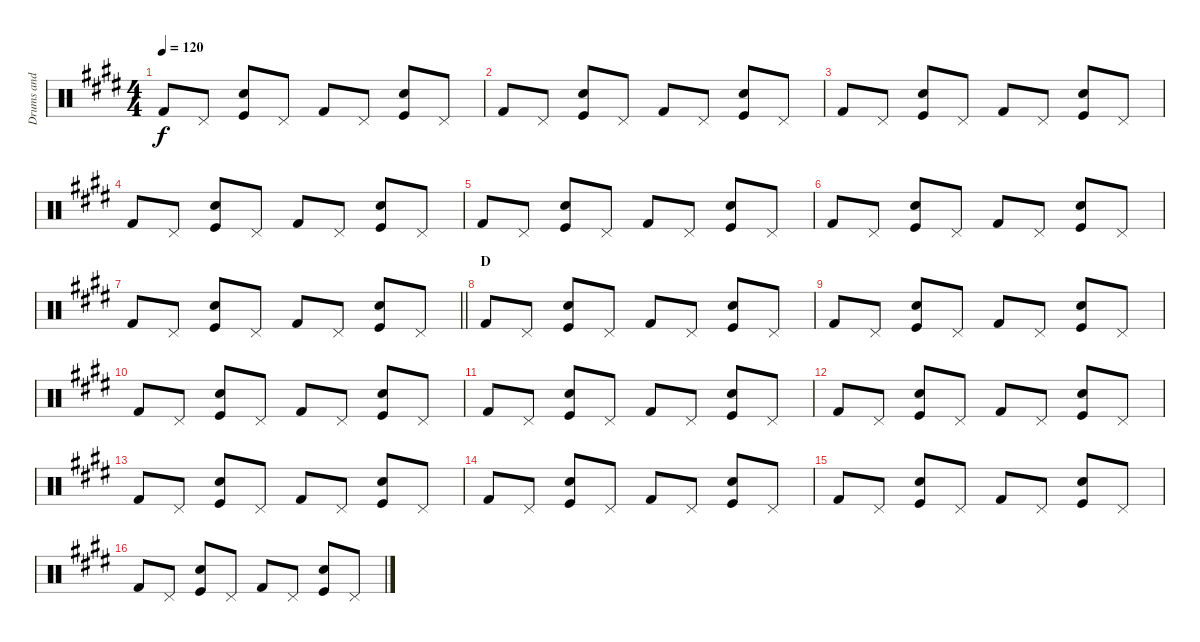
\track ("Drums and clapping" "Drums and ") {instrument percussion}
\staff {score}
\articulation defaults
\ts (4 4)
\tempo 120
\clef neutral
\ks e "Kick (hit) 2".8{dy f} "Pedal Hi-Hat (hit)".8
("Kick (hit)" "Hand Clap (hit)").8 "Pedal Hi-Hat (hit)".8 "Kick (hit) 2".8 "Pedal Hi-Hat (hit)".8 ("Kick (hit)" "Hand Clap (hit)").8 "Pedal Hi-Hat (hit)".8 |
"Kick (hit) 2".8 "Pedal Hi-Hat (hit)".8 ("Kick (hit)" "Hand Clap (hit)").8 "Pedal Hi-Hat (hit)".8 "Kick (hit) 2".8 "Pedal Hi-Hat (hit)".8 ("Kick (hit)" "Hand Clap (hit)").8 "Pedal Hi-Hat (hit)".8 |
"Kick (hit) 2".8 "Pedal Hi-Hat (hit)".8 ("Kick (hit)" "Hand Clap (hit)").8 "Pedal Hi-Hat (hit)".8 "Kick (hit) 2".8 "Pedal Hi-Hat (hit)".8 ("Kick (hit)" "Hand Clap (hit)").8 "Pedal Hi-Hat (hit)".8 |
"Kick (hit) 2".8 "Pedal Hi-Hat (hit)".8 ("Kick (hit)" "Hand Clap (hit)").8 "Pedal Hi-Hat (hit)".8 "Kick (hit) 2".8 "Pedal Hi-Hat (hit)".8 ("Kick (hit)" "Hand Clap (hit)").8 "Pedal Hi-Hat (hit)".8 |
"Kick (hit) 2".8 "Pedal Hi-Hat (hit)".8 ("Kick (hit)" "Hand Clap (hit)").8 "Pedal Hi-Hat (hit)".8 "Kick (hit) 2".8 "Pedal Hi-Hat (hit)".8 ("Kick (hit)" "Hand Clap (hit)").8 "Pedal Hi-Hat (hit)".8 |
"Kick (hit) 2".8 "Pedal Hi-Hat (hit)".8 ("Kick (hit)" "Hand Clap (hit)").8 "Pedal Hi-Hat (hit)".8 "Kick (hit) 2".8 "Pedal Hi-Hat (hit)".8 ("Kick (hit)" "Hand Clap (hit)").8 "Pedal Hi-Hat (hit)".8 |
\barLineRight lightlight "Kick (hit) 2".8 "Pedal Hi-Hat (hit)".8
("Kick (hit)" "Hand Clap (hit)").8 "Pedal Hi-Hat (hit)".8 "Kick (hit) 2".8 "Pedal Hi-Hat (hit)".8 ("Kick (hit)" "Hand Clap (hit)").8 "Pedal Hi-Hat (hit)".8 |
\section ("" "D")
"Kick (hit) 2".8 "Pedal Hi-Hat (hit)".8 ("Kick (hit)" "Hand Clap (hit)").8 "Pedal Hi-Hat (hit)".8 "Kick (hit) 2".8 "Pedal Hi-Hat (hit)".8 ("Kick (hit)" "Hand Clap (hit)").8 "Pedal Hi-Hat (hit)".8 |
"Kick (hit) 2".8 "Pedal Hi-Hat (hit)".8 ("Kick (hit)" "Hand Clap (hit)").8 "Pedal Hi-Hat (hit)".8 "Kick (hit) 2".8 "Pedal Hi-Hat (hit)".8 ("Kick (hit)" "Hand Clap (hit)").8 "Pedal Hi-Hat (hit)".8 |
"Kick (hit) 2".8 "Pedal Hi-Hat (hit)".8 ("Kick (hit)" "Hand Clap (hit)").8 "Pedal Hi-Hat (hit)".8 "Kick (hit) 2".8 "Pedal Hi-Hat (hit)".8 ("Kick (hit)" "Hand Clap (hit)").8 "Pedal Hi-Hat (hit)".8 |
"Kick (hit) 2".8 "Pedal Hi-Hat (hit)".8 ("Kick (hit)" "Hand Clap (hit)").8 "Pedal Hi-Hat (hit)".8 "Kick (hit) 2".8 "Pedal Hi-Hat (hit)".8 ("Kick (hit)" "Hand Clap (hit)").8 "Pedal Hi-Hat (hit)".8 |
"Kick (hit) 2".8 "Pedal Hi-Hat (hit)".8 ("Kick (hit)" "Hand Clap (hit)").8 "Pedal Hi-Hat (hit)".8 "Kick (hit) 2".8 "Pedal Hi-Hat (hit)".8 ("Kick (hit)" "Hand Clap (hit)").8 "Pedal Hi-Hat (hit)".8 |
"Kick (hit) 2".8 "Pedal Hi-Hat (hit)".8 ("Kick (hit)" "Hand Clap (hit)").8 "Pedal Hi-Hat (hit)".8 "Kick (hit) 2".8 "Pedal Hi-Hat (hit)".8 ("Kick (hit)" "Hand Clap (hit)").8 "Pedal Hi-Hat (hit)".8 |
"Kick (hit) 2".8 "Pedal Hi-Hat (hit)".8 ("Kick (hit)" "Hand Clap (hit)").8 "Pedal Hi-Hat (hit)".8 "Kick (hit) 2".8 "Pedal Hi-Hat (hit)".8 ("Kick (hit)" "Hand Clap (hit)").8 "Pedal Hi-Hat (hit)".8 |
"Kick (hit) 2".8 "Pedal Hi-Hat (hit)".8 ("Kick (hit)" "Hand Clap (hit)").8 "Pedal Hi-Hat (hit)".8 "Kick (hit) 2".8 "Pedal Hi-Hat (hit)".8 ("Kick (hit)" "Hand Clap (hit)").8 "Pedal Hi-Hat (hit)".8 |
"Kick (hit) 2".8 "Pedal Hi-Hat (hit)".8 ("Kick (hit)" "Hand Clap (hit)").8 "Pedal Hi-Hat (hit)".8 "Kick (hit) 2".8 "Pedal Hi-Hat (hit)".8 ("Kick (hit)" "Hand Clap (hit)").8 "Pedal Hi-Hat (hit)".8
